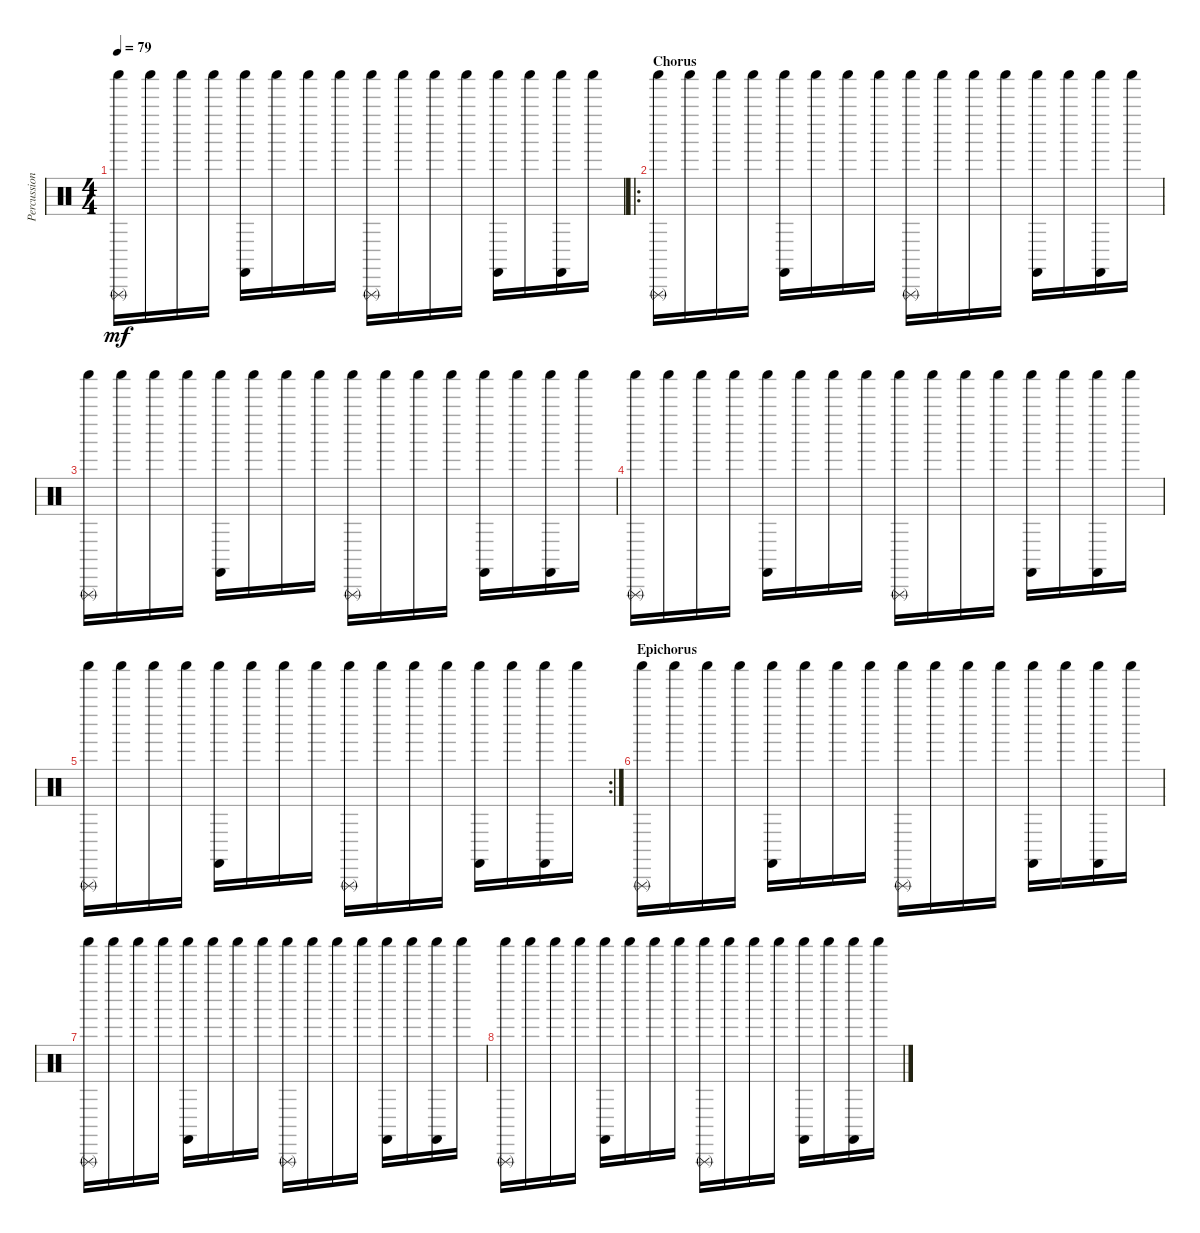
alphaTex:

\track ("Percussion" "Percussion") {instrument percussion}
\staff {score}
\articulation defaults
\ts (4 4)
\tempo 79
\clef neutral
\ks c
("Shaker (hit)" "Triangle (rnute)").16{dy mf} "Shaker (hit)".16 "Shaker (hit)".16 "Shaker (hit)".16 ("Shaker (hit)" "Castanets (hit)").16 "Shaker (hit)".16 "Shaker (hit)".16 "Shaker (hit)".16 ("Shaker (hit)" "Triangle (rnute)").16 "Shaker (hit)".16 "Shaker (hit)".16 "Shaker (hit)".16 ("Shaker (hit)" "Castanets (hit)").16 "Shaker (hit)".16 ("Shaker (hit)" "Castanets (hit)").16 "Shaker (hit)".16 |
\ro
\section ("" "Chorus")
("Shaker (hit)" "Triangle (rnute)").16 "Shaker (hit)".16 "Shaker (hit)".16 "Shaker (hit)".16 ("Shaker (hit)" "Castanets (hit)").16 "Shaker (hit)".16 "Shaker (hit)".16 "Shaker (hit)".16 ("Shaker (hit)" "Triangle (rnute)").16 "Shaker (hit)".16 "Shaker (hit)".16 "Shaker (hit)".16 ("Shaker (hit)" "Castanets (hit)").16 "Shaker (hit)".16 ("Shaker (hit)" "Castanets (hit)").16 "Shaker (hit)".16 |
("Shaker (hit)" "Triangle (rnute)").16 "Shaker (hit)".16 "Shaker (hit)".16 "Shaker (hit)".16 ("Shaker (hit)" "Castanets (hit)").16 "Shaker (hit)".16 "Shaker (hit)".16 "Shaker (hit)".16 ("Shaker (hit)" "Triangle (rnute)").16 "Shaker (hit)".16 "Shaker (hit)".16 "Shaker (hit)".16 ("Shaker (hit)" "Castanets (hit)").16 "Shaker (hit)".16 ("Shaker (hit)" "Castanets (hit)").16 "Shaker (hit)".16 |
("Shaker (hit)" "Triangle (rnute)").16 "Shaker (hit)".16 "Shaker (hit)".16 "Shaker (hit)".16 ("Shaker (hit)" "Castanets (hit)").16 "Shaker (hit)".16 "Shaker (hit)".16 "Shaker (hit)".16 ("Shaker (hit)" "Triangle (rnute)").16 "Shaker (hit)".16 "Shaker (hit)".16 "Shaker (hit)".16 ("Shaker (hit)" "Castanets (hit)").16 "Shaker (hit)".16 ("Shaker (hit)" "Castanets (hit)").16 "Shaker (hit)".16 |
\rc 2
("Shaker (hit)" "Triangle (rnute)").16 "Shaker (hit)".16 "Shaker (hit)".16 "Shaker (hit)".16 ("Shaker (hit)" "Castanets (hit)").16 "Shaker (hit)".16 "Shaker (hit)".16 "Shaker (hit)".16 ("Shaker (hit)" "Triangle (rnute)").16 "Shaker (hit)".16 "Shaker (hit)".16 "Shaker (hit)".16 ("Shaker (hit)" "Castanets (hit)").16 "Shaker (hit)".16 ("Shaker (hit)" "Castanets (hit)").16 "Shaker (hit)".16 |
\section ("" "Epichorus")
("Shaker (hit)" "Triangle (rnute)").16 "Shaker (hit)".16 "Shaker (hit)".16 "Shaker (hit)".16 ("Shaker (hit)" "Castanets (hit)").16 "Shaker (hit)".16 "Shaker (hit)".16 "Shaker (hit)".16 ("Shaker (hit)" "Triangle (rnute)").16 "Shaker (hit)".16 "Shaker (hit)".16 "Shaker (hit)".16 ("Shaker (hit)" "Castanets (hit)").16 "Shaker (hit)".16 ("Shaker (hit)" "Castanets (hit)").16 "Shaker (hit)".16 |
("Shaker (hit)" "Triangle (rnute)").16 "Shaker (hit)".16 "Shaker (hit)".16 "Shaker (hit)".16 ("Shaker (hit)" "Castanets (hit)").16 "Shaker (hit)".16 "Shaker (hit)".16 "Shaker (hit)".16 ("Shaker (hit)" "Triangle (rnute)").16 "Shaker (hit)".16 "Shaker (hit)".16 "Shaker (hit)".16 ("Shaker (hit)" "Castanets (hit)").16 "Shaker (hit)".16 ("Shaker (hit)" "Castanets (hit)").16 "Shaker (hit)".16 |
("Shaker (hit)" "Triangle (rnute)").16 "Shaker (hit)".16 "Shaker (hit)".16 "Shaker (hit)".16 ("Shaker (hit)" "Castanets (hit)").16 "Shaker (hit)".16 "Shaker (hit)".16 "Shaker (hit)".16 ("Shaker (hit)" "Triangle (rnute)").16 "Shaker (hit)".16 "Shaker (hit)".16 "Shaker (hit)".16 ("Shaker (hit)" "Castanets (hit)").16 "Shaker (hit)".16 ("Shaker (hit)" "Castanets (hit)").16 "Shaker (hit)".16
